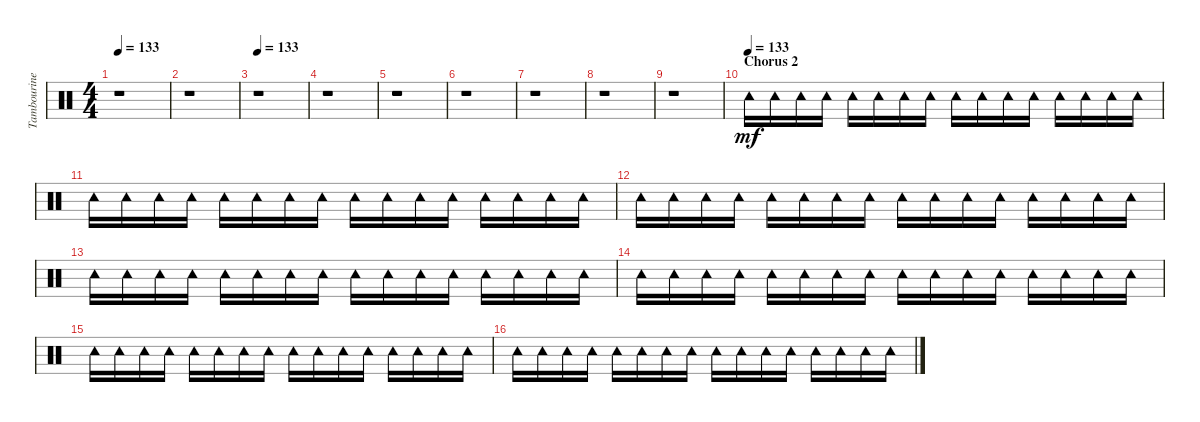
\track ("Tambourine" "Tambourine") {instrument percussion}
\staff {score}
\articulation defaults
\ts (4 4)
\tempo 133
\clef neutral
\ks c
r.1{dy mf} |
r.1 |
\tempo 133
r.1 |
r.1 |
r.1 |
r.1 |
r.1 |
r.1 |
r.1 |
\section ("" "Chorus 2")
\tempo (133)
"Tambourine (hit)".16 "Tambourine (hit)".16 "Tambourine (hit)".16 "Tambourine (hit)".16 "Tambourine (hit)".16 "Tambourine (hit)".16 "Tambourine (hit)".16 "Tambourine (hit)".16 "Tambourine (hit)".16 "Tambourine (hit)".16 "Tambourine (hit)".16 "Tambourine (hit)".16 "Tambourine (hit)".16 "Tambourine (hit)".16 "Tambourine (hit)".16 "Tambourine (hit)".16 |
"Tambourine (hit)".16 "Tambourine (hit)".16 "Tambourine (hit)".16 "Tambourine (hit)".16 "Tambourine (hit)".16 "Tambourine (hit)".16 "Tambourine (hit)".16 "Tambourine (hit)".16 "Tambourine (hit)".16 "Tambourine (hit)".16 "Tambourine (hit)".16 "Tambourine (hit)".16 "Tambourine (hit)".16 "Tambourine (hit)".16 "Tambourine (hit)".16 "Tambourine (hit)".16 |
"Tambourine (hit)".16 "Tambourine (hit)".16 "Tambourine (hit)".16 "Tambourine (hit)".16 "Tambourine (hit)".16 "Tambourine (hit)".16 "Tambourine (hit)".16 "Tambourine (hit)".16 "Tambourine (hit)".16 "Tambourine (hit)".16 "Tambourine (hit)".16 "Tambourine (hit)".16 "Tambourine (hit)".16 "Tambourine (hit)".16 "Tambourine (hit)".16 "Tambourine (hit)".16 |
"Tambourine (hit)".16 "Tambourine (hit)".16 "Tambourine (hit)".16 "Tambourine (hit)".16 "Tambourine (hit)".16 "Tambourine (hit)".16 "Tambourine (hit)".16 "Tambourine (hit)".16 "Tambourine (hit)".16 "Tambourine (hit)".16 "Tambourine (hit)".16 "Tambourine (hit)".16 "Tambourine (hit)".16 "Tambourine (hit)".16 "Tambourine (hit)".16 "Tambourine (hit)".16 |
"Tambourine (hit)".16 "Tambourine (hit)".16 "Tambourine (hit)".16 "Tambourine (hit)".16 "Tambourine (hit)".16 "Tambourine (hit)".16 "Tambourine (hit)".16 "Tambourine (hit)".16 "Tambourine (hit)".16 "Tambourine (hit)".16 "Tambourine (hit)".16 "Tambourine (hit)".16 "Tambourine (hit)".16 "Tambourine (hit)".16 "Tambourine (hit)".16 "Tambourine (hit)".16 |
"Tambourine (hit)".16 "Tambourine (hit)".16 "Tambourine (hit)".16 "Tambourine (hit)".16 "Tambourine (hit)".16 "Tambourine (hit)".16 "Tambourine (hit)".16 "Tambourine (hit)".16 "Tambourine (hit)".16 "Tambourine (hit)".16 "Tambourine (hit)".16 "Tambourine (hit)".16 "Tambourine (hit)".16 "Tambourine (hit)".16 "Tambourine (hit)".16 "Tambourine (hit)".16 |
"Tambourine (hit)".16 "Tambourine (hit)".16 "Tambourine (hit)".16 "Tambourine (hit)".16 "Tambourine (hit)".16 "Tambourine (hit)".16 "Tambourine (hit)".16 "Tambourine (hit)".16 "Tambourine (hit)".16 "Tambourine (hit)".16 "Tambourine (hit)".16 "Tambourine (hit)".16 "Tambourine (hit)".16 "Tambourine (hit)".16 "Tambourine (hit)".16 "Tambourine (hit)".16
